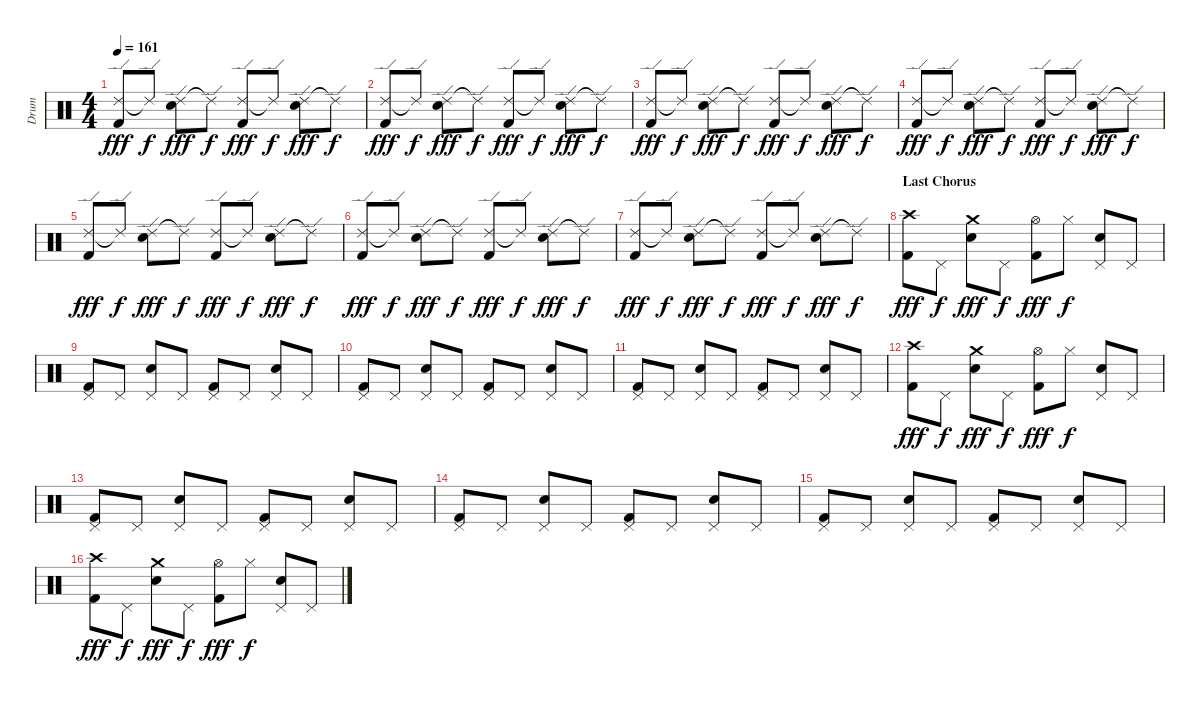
\track ("Drum" "Drum") {instrument percussion}
\staff {score}
\articulation defaults
\ts (4 4)
\tempo 161
\clef neutral
\ks c
("Ride (edge) 2" "Kick (hit) 2").8{dy fff} "Ride (edge) 2"{t}.8{dy f} ("Ride (edge) 2" "Snare (hit) 2").8{dy fff} "Ride (edge) 2"{t}.8{dy f} ("Ride (edge) 2" "Kick (hit) 2").8{dy fff} "Ride (edge) 2"{t}.8{dy f} ("Ride (edge) 2" "Snare (hit) 2").8{dy fff} "Ride (edge) 2"{t}.8{dy f} |
("Ride (edge) 2" "Kick (hit) 2").8{dy fff} "Ride (edge) 2"{t}.8{dy f} ("Ride (edge) 2" "Snare (hit) 2").8{dy fff} "Ride (edge) 2"{t}.8{dy f} ("Ride (edge) 2" "Kick (hit) 2").8{dy fff} "Ride (edge) 2"{t}.8{dy f} ("Ride (edge) 2" "Snare (hit) 2").8{dy fff} "Ride (edge) 2"{t}.8{dy f} |
("Ride (edge) 2" "Kick (hit) 2").8{dy fff} "Ride (edge) 2"{t}.8{dy f} ("Ride (edge) 2" "Snare (hit) 2").8{dy fff} "Ride (edge) 2"{t}.8{dy f} ("Ride (edge) 2" "Kick (hit) 2").8{dy fff} "Ride (edge) 2"{t}.8{dy f} ("Ride (edge) 2" "Snare (hit) 2").8{dy fff} "Ride (edge) 2"{t}.8{dy f} |
("Ride (edge) 2" "Kick (hit) 2").8{dy fff} "Ride (edge) 2"{t}.8{dy f} ("Ride (edge) 2" "Snare (hit) 2").8{dy fff} "Ride (edge) 2"{t}.8{dy f} ("Ride (edge) 2" "Kick (hit) 2").8{dy fff} "Ride (edge) 2"{t}.8{dy f} ("Ride (edge) 2" "Snare (hit) 2").8{dy fff} "Ride (edge) 2"{t}.8{dy f} |
("Ride (edge) 2" "Kick (hit) 2").8{dy fff} "Ride (edge) 2"{t}.8{dy f} ("Ride (edge) 2" "Snare (hit) 2").8{dy fff} "Ride (edge) 2"{t}.8{dy f} ("Ride (edge) 2" "Kick (hit) 2").8{dy fff} "Ride (edge) 2"{t}.8{dy f} ("Ride (edge) 2" "Snare (hit) 2").8{dy fff} "Ride (edge) 2"{t}.8{dy f} |
("Ride (edge) 2" "Kick (hit) 2").8{dy fff} "Ride (edge) 2"{t}.8{dy f} ("Ride (edge) 2" "Snare (hit) 2").8{dy fff} "Ride (edge) 2"{t}.8{dy f} ("Ride (edge) 2" "Kick (hit) 2").8{dy fff} "Ride (edge) 2"{t}.8{dy f} ("Ride (edge) 2" "Snare (hit) 2").8{dy fff} "Ride (edge) 2"{t}.8{dy f} |
("Ride (edge) 2" "Kick (hit) 2").8{dy fff} "Ride (edge) 2"{t}.8{dy f} ("Ride (edge) 2" "Snare (hit) 2").8{dy fff} "Ride (edge) 2"{t}.8{dy f} ("Ride (edge) 2" "Kick (hit) 2").8{dy fff} "Ride (edge) 2"{t}.8{dy f} ("Ride (edge) 2" "Snare (hit) 2").8{dy fff} "Ride (edge) 2"{t}.8{dy f} |
\section ("" "Last Chorus")
("Crash high (hit)" "Kick (hit) 2").8{dy fff} "Pedal Hi-Hat (hit)".8{dy f} ("Crash medium (hit)" "Snare (hit) 2").8{dy fff} "Pedal Hi-Hat (hit)".8{dy f} ("Hi-Hat (open)" "Kick (hit) 2").8{dy fff} "Hi-Hat (closed)".8{dy f} ("Pedal Hi-Hat (hit)" "Snare (hit) 2").8 "Pedal Hi-Hat (hit)".8 |
("Pedal Hi-Hat (hit)" "Kick (hit) 2").8 "Pedal Hi-Hat (hit)".8 ("Pedal Hi-Hat (hit)" "Snare (hit) 2").8 "Pedal Hi-Hat (hit)".8 ("Pedal Hi-Hat (hit)" "Kick (hit) 2").8 "Pedal Hi-Hat (hit)".8 ("Pedal Hi-Hat (hit)" "Snare (hit) 2").8 "Pedal Hi-Hat (hit)".8 |
("Pedal Hi-Hat (hit)" "Kick (hit) 2").8 "Pedal Hi-Hat (hit)".8 ("Pedal Hi-Hat (hit)" "Snare (hit) 2").8 "Pedal Hi-Hat (hit)".8 ("Pedal Hi-Hat (hit)" "Kick (hit) 2").8 "Pedal Hi-Hat (hit)".8 ("Pedal Hi-Hat (hit)" "Snare (hit) 2").8 "Pedal Hi-Hat (hit)".8 |
("Pedal Hi-Hat (hit)" "Kick (hit) 2").8 "Pedal Hi-Hat (hit)".8 ("Pedal Hi-Hat (hit)" "Snare (hit) 2").8 "Pedal Hi-Hat (hit)".8 ("Pedal Hi-Hat (hit)" "Kick (hit) 2").8 "Pedal Hi-Hat (hit)".8 ("Pedal Hi-Hat (hit)" "Snare (hit) 2").8 "Pedal Hi-Hat (hit)".8 |
("Crash high (hit)" "Kick (hit) 2").8{dy fff} "Pedal Hi-Hat (hit)".8{dy f} ("Crash medium (hit)" "Snare (hit) 2").8{dy fff} "Pedal Hi-Hat (hit)".8{dy f} ("Hi-Hat (open)" "Kick (hit) 2").8{dy fff} "Hi-Hat (closed)".8{dy f} ("Pedal Hi-Hat (hit)" "Snare (hit) 2").8 "Pedal Hi-Hat (hit)".8 |
("Pedal Hi-Hat (hit)" "Kick (hit) 2").8 "Pedal Hi-Hat (hit)".8 ("Pedal Hi-Hat (hit)" "Snare (hit) 2").8 "Pedal Hi-Hat (hit)".8 ("Pedal Hi-Hat (hit)" "Kick (hit) 2").8 "Pedal Hi-Hat (hit)".8 ("Pedal Hi-Hat (hit)" "Snare (hit) 2").8 "Pedal Hi-Hat (hit)".8 |
("Pedal Hi-Hat (hit)" "Kick (hit) 2").8 "Pedal Hi-Hat (hit)".8 ("Pedal Hi-Hat (hit)" "Snare (hit) 2").8 "Pedal Hi-Hat (hit)".8 ("Pedal Hi-Hat (hit)" "Kick (hit) 2").8 "Pedal Hi-Hat (hit)".8 ("Pedal Hi-Hat (hit)" "Snare (hit) 2").8 "Pedal Hi-Hat (hit)".8 |
("Pedal Hi-Hat (hit)" "Kick (hit) 2").8 "Pedal Hi-Hat (hit)".8 ("Pedal Hi-Hat (hit)" "Snare (hit) 2").8 "Pedal Hi-Hat (hit)".8 ("Pedal Hi-Hat (hit)" "Kick (hit) 2").8 "Pedal Hi-Hat (hit)".8 ("Pedal Hi-Hat (hit)" "Snare (hit) 2").8 "Pedal Hi-Hat (hit)".8 |
("Crash high (hit)" "Kick (hit) 2").8{dy fff} "Pedal Hi-Hat (hit)".8{dy f} ("Crash medium (hit)" "Snare (hit) 2").8{dy fff} "Pedal Hi-Hat (hit)".8{dy f} ("Hi-Hat (open)" "Kick (hit) 2").8{dy fff} "Hi-Hat (closed)".8{dy f} ("Pedal Hi-Hat (hit)" "Snare (hit) 2").8 "Pedal Hi-Hat (hit)".8
